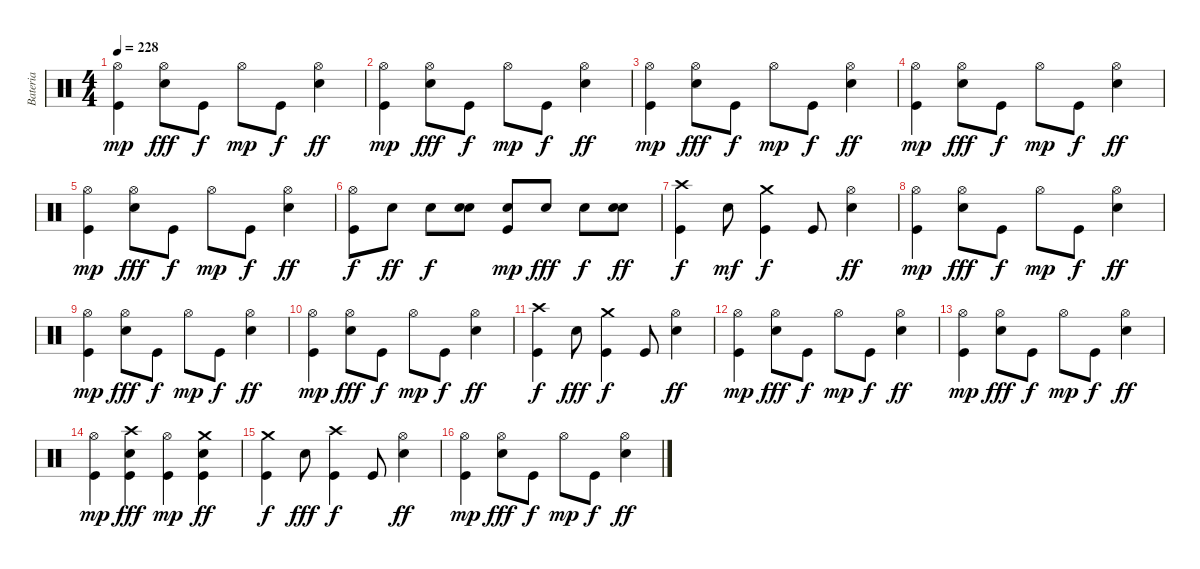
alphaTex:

\track ("Bateria" "Bateria") {instrument percussion}
\staff {score}
\articulation defaults
\ts (4 4)
\tempo 228
\clef neutral
\ks c
("Hi-Hat (open)" "Kick (hit)").4{dy mp} ("Hi-Hat (open)" "Electric Snare (hit)").8{dy fff} "Kick (hit)".8{dy f} "Hi-Hat (open)".8{dy mp} "Kick (hit)".8{dy f} ("Hi-Hat (open)" "Electric Snare (hit)").4{dy ff} |
("Hi-Hat (open)" "Kick (hit)").4{dy mp} ("Hi-Hat (open)" "Electric Snare (hit)").8{dy fff} "Kick (hit)".8{dy f} "Hi-Hat (open)".8{dy mp} "Kick (hit)".8{dy f} ("Hi-Hat (open)" "Electric Snare (hit)").4{dy ff} |
("Hi-Hat (open)" "Kick (hit)").4{dy mp} ("Hi-Hat (open)" "Electric Snare (hit)").8{dy fff} "Kick (hit)".8{dy f} "Hi-Hat (open)".8{dy mp} "Kick (hit)".8{dy f} ("Hi-Hat (open)" "Electric Snare (hit)").4{dy ff} |
("Hi-Hat (open)" "Kick (hit)").4{dy mp} ("Hi-Hat (open)" "Electric Snare (hit)").8{dy fff} "Kick (hit)".8{dy f} "Hi-Hat (open)".8{dy mp} "Kick (hit)".8{dy f} ("Hi-Hat (open)" "Electric Snare (hit)").4{dy ff} |
("Hi-Hat (open)" "Kick (hit)").4{dy mp} ("Hi-Hat (open)" "Electric Snare (hit)").8{dy fff} "Kick (hit)".8{dy f} "Hi-Hat (open)".8{dy mp} "Kick (hit)".8{dy f} ("Hi-Hat (open)" "Electric Snare (hit)").4{dy ff} |
("Hi-Hat (open)" "Kick (hit)").8{dy f} "Electric Snare (hit)".8{dy ff} "Electric Snare (hit)".8{dy f} ("Electric Snare (hit)" "Electric Snare (hit)").8 ("Electric Snare (hit)" "Kick (hit)").8{dy mp} "Electric Snare (hit)".8{dy fff} "Electric Snare (hit)".8{dy f} ("Electric Snare (hit)" "Electric Snare (hit)").8{dy ff} |
("Crash high (hit)" "Kick (hit)").4{dy f} "Electric Snare (hit)".8{dy mf} ("Crash medium (hit)" "Kick (hit)").4{dy f} "Kick (hit)".8 ("Hi-Hat (open)" "Electric Snare (hit)").4{dy ff} |
("Hi-Hat (open)" "Kick (hit)").4{dy mp} ("Hi-Hat (open)" "Electric Snare (hit)").8{dy fff} "Kick (hit)".8{dy f} "Hi-Hat (open)".8{dy mp} "Kick (hit)".8{dy f} ("Hi-Hat (open)" "Electric Snare (hit)").4{dy ff} |
("Hi-Hat (open)" "Kick (hit)").4{dy mp} ("Hi-Hat (open)" "Electric Snare (hit)").8{dy fff} "Kick (hit)".8{dy f} "Hi-Hat (open)".8{dy mp} "Kick (hit)".8{dy f} ("Hi-Hat (open)" "Electric Snare (hit)").4{dy ff} |
("Hi-Hat (open)" "Kick (hit)").4{dy mp} ("Hi-Hat (open)" "Electric Snare (hit)").8{dy fff} "Kick (hit)".8{dy f} "Hi-Hat (open)".8{dy mp} "Kick (hit)".8{dy f} ("Hi-Hat (open)" "Electric Snare (hit)").4{dy ff} |
("Crash high (hit)" "Kick (hit)").4{dy f} "Electric Snare (hit)".8{dy fff} ("Crash medium (hit)" "Kick (hit)").4{dy f} "Kick (hit)".8 ("Hi-Hat (open)" "Electric Snare (hit)").4{dy ff} |
("Hi-Hat (open)" "Kick (hit)").4{dy mp} ("Hi-Hat (open)" "Electric Snare (hit)").8{dy fff} "Kick (hit)".8{dy f} "Hi-Hat (open)".8{dy mp} "Kick (hit)".8{dy f} ("Hi-Hat (open)" "Electric Snare (hit)").4{dy ff} |
("Hi-Hat (open)" "Kick (hit)").4{dy mp} ("Hi-Hat (open)" "Electric Snare (hit)").8{dy fff} "Kick (hit)".8{dy f} "Hi-Hat (open)".8{dy mp} "Kick (hit)".8{dy f} ("Hi-Hat (open)" "Electric Snare (hit)").4{dy ff} |
("Hi-Hat (open)" "Kick (hit)").4{dy mp} ("Crash high (hit)" "Kick (hit)" "Electric Snare (hit)").4{dy fff} ("Hi-Hat (open)" "Kick (hit)").4{dy mp} ("Crash medium (hit)" "Kick (hit)" "Electric Snare (hit)").4{dy ff} |
("Crash medium (hit)" "Kick (hit)").4{dy f} "Electric Snare (hit)".8{dy fff} ("Crash high (hit)" "Kick (hit)").4{dy f} "Kick (hit)".8 ("Hi-Hat (open)" "Electric Snare (hit)").4{dy ff} |
("Hi-Hat (open)" "Kick (hit)").4{dy mp} ("Hi-Hat (open)" "Electric Snare (hit)").8{dy fff} "Kick (hit)".8{dy f} "Hi-Hat (open)".8{dy mp} "Kick (hit)".8{dy f} ("Hi-Hat (open)" "Electric Snare (hit)").4{dy ff}
